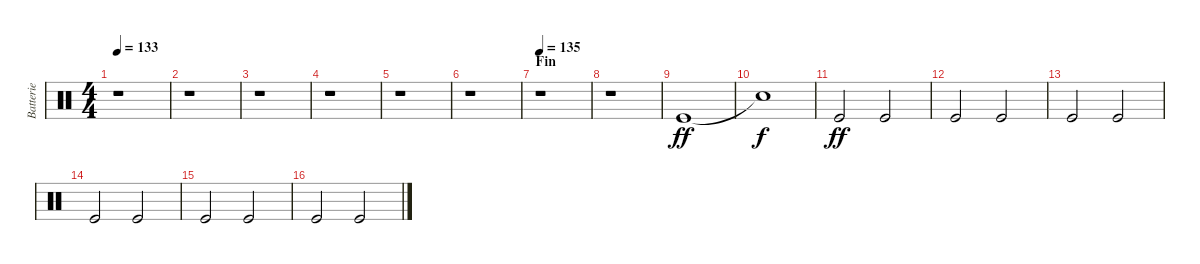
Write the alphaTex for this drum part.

\track ("Batterie" "Batterie") {instrument percussion}
\staff {score}
\articulation defaults
\ts (4 4)
\tempo 133
\clef neutral
\ks c
r.1{dy ff} |
r.1 |
r.1 |
r.1 |
r.1 |
r.1 |
\section ("" "Fin")
\tempo 137
\tempo 135
r.1 |
r.1 |
"Kick (hit)".1 |
"Snare (hit)"{t}.1{dy f} |
"Kick (hit)".2{dy ff} "Kick (hit)".2 |
"Kick (hit)".2 "Kick (hit)".2 |
"Kick (hit)".2 "Kick (hit)".2 |
"Kick (hit)".2 "Kick (hit)".2 |
"Kick (hit)".2 "Kick (hit)".2 |
"Kick (hit)".2 "Kick (hit)".2
